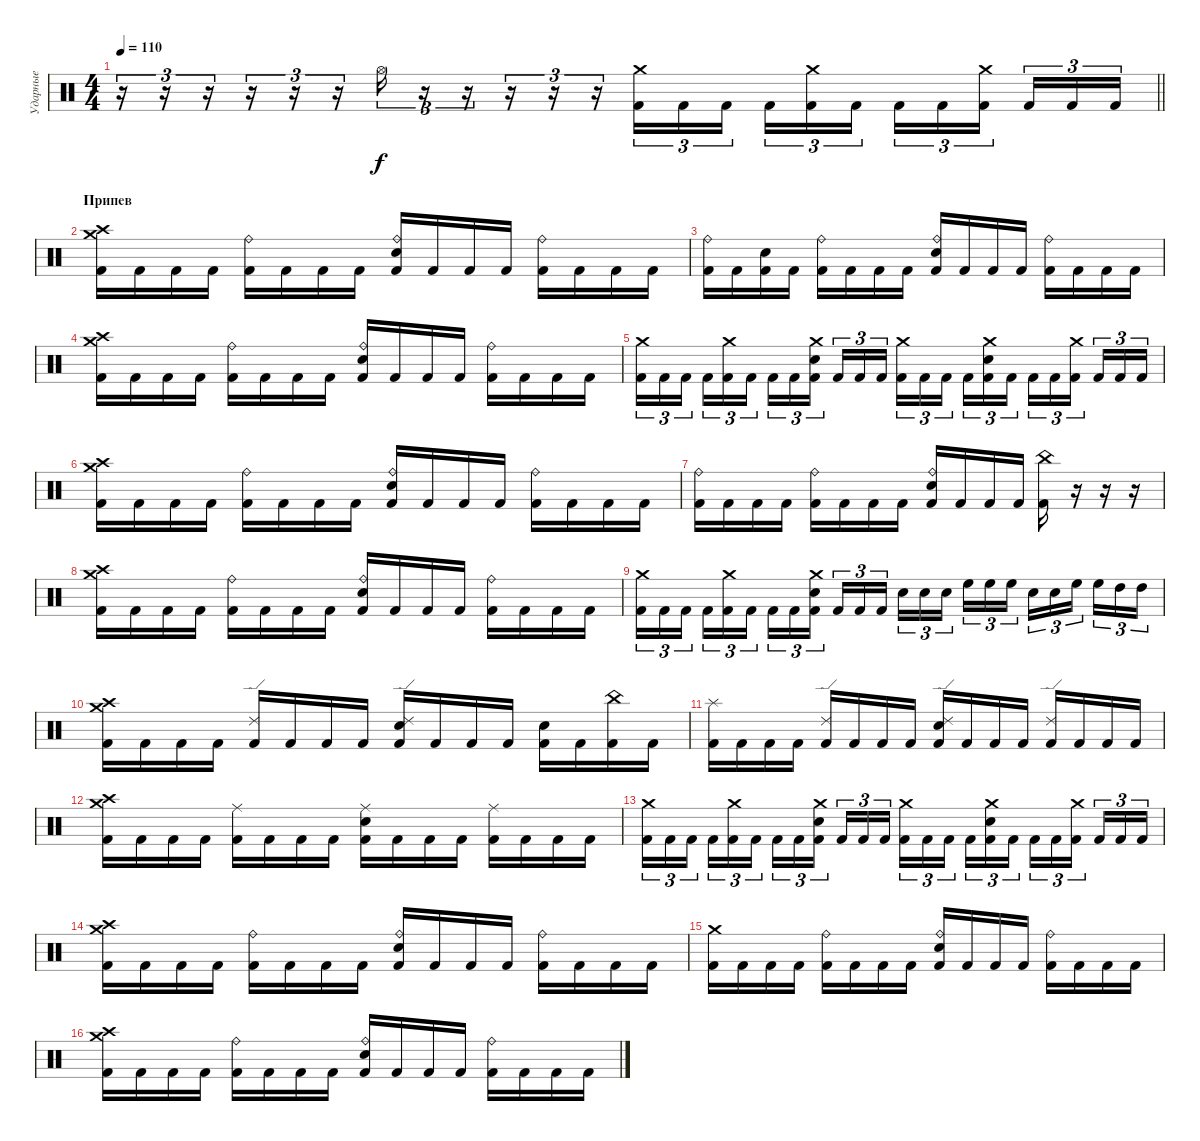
\track ("Ударные" "Ударные") {instrument percussion}
\staff {score}
\articulation defaults
\ts (4 4)
\tempo 110
\clef neutral
\barLineRight lightlight
\ks c
r.16{tu (3 2) dy f} r.16{tu (3 2)} r.16{tu (3 2)} r.16{tu (3 2)} r.16{tu (3 2)} r.16{tu (3 2)} "Hi-Hat (open)".16{tu (3 2)} r.16{tu (3 2)} r.16{tu (3 2)} r.16{tu (3 2)} r.16{tu (3 2)} r.16{tu (3 2)} ("Crash medium (hit)" "Kick (hit) 2").16{tu (3 2)} "Kick (hit) 2".16{tu (3 2)} "Kick (hit) 2".16{tu (3 2) beam splitsecondary} "Kick (hit) 2".16{tu (3 2)} ("Crash medium (hit)" "Kick (hit) 2").16{tu (3 2)} "Kick (hit) 2".16{tu (3 2)} "Kick (hit) 2".16{tu (3 2)} "Kick (hit) 2".16{tu (3 2)} ("Crash medium (hit)" "Kick (hit) 2").16{tu (3 2) beam splitsecondary} "Kick (hit) 2".16{tu (3 2)} "Kick (hit) 2".16{tu (3 2)} "Kick (hit) 2".16{tu (3 2)} |
\section ("" "Припев")
("Crash high (hit)" "Crash medium (hit)" "Kick (hit) 2").16 "Kick (hit) 2".16 "Kick (hit) 2".16 "Kick (hit) 2".16 ("Ride (bell)" "Kick (hit) 2").16 "Kick (hit) 2".16 "Kick (hit) 2".16 "Kick (hit) 2".16 ("Ride (bell)" "Electric Snare (hit)" "Kick (hit) 2").16 "Kick (hit) 2".16 "Kick (hit) 2".16 "Kick (hit) 2".16 ("Ride (bell)" "Kick (hit) 2").16 "Kick (hit) 2".16 "Kick (hit) 2".16 "Kick (hit) 2".16 |
("Ride (bell)" "Kick (hit) 2").16 "Kick (hit) 2".16 ("Electric Snare (hit)" "Kick (hit) 2").16 "Kick (hit) 2".16 ("Ride (bell)" "Kick (hit) 2").16 "Kick (hit) 2".16 "Kick (hit) 2".16 "Kick (hit) 2".16 ("Ride (bell)" "Electric Snare (hit)" "Kick (hit) 2").16 "Kick (hit) 2".16 "Kick (hit) 2".16 "Kick (hit) 2".16 ("Ride (bell)" "Kick (hit) 2").16 "Kick (hit) 2".16 "Kick (hit) 2".16 "Kick (hit) 2".16 |
("Crash high (hit)" "Crash medium (hit)" "Kick (hit) 2").16 "Kick (hit) 2".16 "Kick (hit) 2".16 "Kick (hit) 2".16 ("Ride (bell)" "Kick (hit) 2").16 "Kick (hit) 2".16 "Kick (hit) 2".16 "Kick (hit) 2".16 ("Ride (bell)" "Electric Snare (hit)" "Kick (hit) 2").16 "Kick (hit) 2".16 "Kick (hit) 2".16 "Kick (hit) 2".16 ("Ride (bell)" "Kick (hit) 2").16 "Kick (hit) 2".16 "Kick (hit) 2".16 "Kick (hit) 2".16 |
("Crash medium (hit)" "Kick (hit) 2").16{tu (3 2)} "Kick (hit) 2".16{tu (3 2)} "Kick (hit) 2".16{tu (3 2) beam splitsecondary} "Kick (hit) 2".16{tu (3 2)} ("Crash medium (hit)" "Kick (hit) 2").16{tu (3 2)} "Kick (hit) 2".16{tu (3 2)} "Kick (hit) 2".16{tu (3 2)} "Kick (hit) 2".16{tu (3 2)} ("Crash medium (hit)" "Electric Snare (hit)" "Kick (hit) 2").16{tu (3 2) beam splitsecondary} "Kick (hit) 2".16{tu (3 2)} "Kick (hit) 2".16{tu (3 2)} "Kick (hit) 2".16{tu (3 2)} ("Crash medium (hit)" "Kick (hit) 2").16{tu (3 2)} "Kick (hit) 2".16{tu (3 2)} "Kick (hit) 2".16{tu (3 2) beam splitsecondary} "Kick (hit) 2".16{tu (3 2)} ("Crash medium (hit)" "Electric Snare (hit)" "Kick (hit) 2").16{tu (3 2)} "Kick (hit) 2".16{tu (3 2)} "Kick (hit) 2".16{tu (3 2)} "Kick (hit) 2".16{tu (3 2)} ("Crash medium (hit)" "Kick (hit) 2").16{tu (3 2) beam splitsecondary} "Kick (hit) 2".16{tu (3 2)} "Kick (hit) 2".16{tu (3 2)} "Kick (hit) 2".16{tu (3 2)} |
("Crash high (hit)" "Crash medium (hit)" "Kick (hit) 2").16 "Kick (hit) 2".16 "Kick (hit) 2".16 "Kick (hit) 2".16 ("Ride (bell)" "Kick (hit) 2").16 "Kick (hit) 2".16 "Kick (hit) 2".16 "Kick (hit) 2".16 ("Ride (bell)" "Electric Snare (hit)" "Kick (hit) 2").16 "Kick (hit) 2".16 "Kick (hit) 2".16 "Kick (hit) 2".16 ("Ride (bell)" "Kick (hit) 2").16 "Kick (hit) 2".16 "Kick (hit) 2".16 "Kick (hit) 2".16 |
("Ride (bell)" "Kick (hit) 2").16 "Kick (hit) 2".16 "Kick (hit) 2".16 "Kick (hit) 2".16 ("Ride (bell)" "Kick (hit) 2").16 "Kick (hit) 2".16 "Kick (hit) 2".16 "Kick (hit) 2".16 ("Ride (bell)" "Electric Snare (hit)" "Kick (hit) 2").16 "Kick (hit) 2".16 "Kick (hit) 2".16 "Kick (hit) 2".16 ("China (hit)" "Kick (hit) 2").16 r.16 r.16 r.16 |
("Crash high (hit)" "Crash medium (hit)" "Kick (hit) 2").16 "Kick (hit) 2".16 "Kick (hit) 2".16 "Kick (hit) 2".16 ("Ride (bell)" "Kick (hit) 2").16 "Kick (hit) 2".16 "Kick (hit) 2".16 "Kick (hit) 2".16 ("Ride (bell)" "Electric Snare (hit)" "Kick (hit) 2").16 "Kick (hit) 2".16 "Kick (hit) 2".16 "Kick (hit) 2".16 ("Ride (bell)" "Kick (hit) 2").16 "Kick (hit) 2".16 "Kick (hit) 2".16 "Kick (hit) 2".16 |
("Crash medium (hit)" "Kick (hit) 2").16{tu (3 2)} "Kick (hit) 2".16{tu (3 2)} "Kick (hit) 2".16{tu (3 2) beam splitsecondary} "Kick (hit) 2".16{tu (3 2)} ("Crash medium (hit)" "Kick (hit) 2").16{tu (3 2)} "Kick (hit) 2".16{tu (3 2)} "Kick (hit) 2".16{tu (3 2)} "Kick (hit) 2".16{tu (3 2)} ("Crash medium (hit)" "Electric Snare (hit)" "Kick (hit) 2").16{tu (3 2) beam splitsecondary} "Kick (hit) 2".16{tu (3 2)} "Kick (hit) 2".16{tu (3 2)} "Kick (hit) 2".16{tu (3 2)} "Electric Snare (hit)".16{tu (3 2)} "Electric Snare (hit)".16{tu (3 2)} "Electric Snare (hit)".16{tu (3 2) beam splitsecondary} "High Floor Tom (hit)".16{tu (3 2)} "High Floor Tom (hit)".16{tu (3 2)} "High Floor Tom (hit)".16{tu (3 2)} "Electric Snare (hit)".16{tu (3 2)} "Electric Snare (hit)".16{tu (3 2)} "High Floor Tom (hit)".16{tu (3 2) beam splitsecondary} "High Floor Tom (hit)".16{tu (3 2)} "High Tom (hit)".16{tu (3 2)} "High Tom (hit)".16{tu (3 2)} |
("Crash high (hit)" "Crash medium (hit)" "Kick (hit) 2").16 "Kick (hit) 2".16 "Kick (hit) 2".16 "Kick (hit) 2".16 ("Ride (edge) 2" "Kick (hit) 2").16 "Kick (hit) 2".16 "Kick (hit) 2".16 "Kick (hit) 2".16 ("Ride (edge) 2" "Electric Snare (hit)" "Kick (hit) 2").16 "Kick (hit) 2".16 "Kick (hit) 2".16 "Kick (hit) 2".16 ("Electric Snare (hit)" "Kick (hit) 2").16 "Kick (hit) 2".16 ("China (hit)" "Kick (hit) 2").16 "Kick (hit) 2".16 |
("Splash (hit)" "Kick (hit) 2").16 "Kick (hit) 2".16 "Kick (hit) 2".16 "Kick (hit) 2".16 ("Ride (edge) 2" "Kick (hit) 2").16 "Kick (hit) 2".16 "Kick (hit) 2".16 "Kick (hit) 2".16 ("Ride (edge) 2" "Electric Snare (hit)" "Kick (hit) 2").16 "Kick (hit) 2".16 "Kick (hit) 2".16 "Kick (hit) 2".16 ("Ride (edge) 2" "Kick (hit) 2").16 "Kick (hit) 2".16 "Kick (hit) 2".16 "Kick (hit) 2".16 |
("Crash high (hit)" "Crash medium (hit)" "Kick (hit) 2").16 "Kick (hit) 2".16 "Kick (hit) 2".16 "Kick (hit) 2".16 ("Ride (middle)" "Kick (hit) 2").16 "Kick (hit) 2".16 "Kick (hit) 2".16 "Kick (hit) 2".16 ("Ride (middle)" "Electric Snare (hit)" "Kick (hit) 2").16 "Kick (hit) 2".16 "Kick (hit) 2".16 "Kick (hit) 2".16 ("Ride (middle)" "Kick (hit) 2").16 "Kick (hit) 2".16 "Kick (hit) 2".16 "Kick (hit) 2".16 |
("Crash medium (hit)" "Kick (hit) 2").16{tu (3 2)} "Kick (hit) 2".16{tu (3 2)} "Kick (hit) 2".16{tu (3 2) beam splitsecondary} "Kick (hit) 2".16{tu (3 2)} ("Crash medium (hit)" "Kick (hit) 2").16{tu (3 2)} "Kick (hit) 2".16{tu (3 2)} "Kick (hit) 2".16{tu (3 2)} "Kick (hit) 2".16{tu (3 2)} ("Crash medium (hit)" "Electric Snare (hit)" "Kick (hit) 2").16{tu (3 2) beam splitsecondary} "Kick (hit) 2".16{tu (3 2)} "Kick (hit) 2".16{tu (3 2)} "Kick (hit) 2".16{tu (3 2)} ("Crash medium (hit)" "Kick (hit) 2").16{tu (3 2)} "Kick (hit) 2".16{tu (3 2)} "Kick (hit) 2".16{tu (3 2) beam splitsecondary} "Kick (hit) 2".16{tu (3 2)} ("Crash medium (hit)" "Electric Snare (hit)" "Kick (hit) 2").16{tu (3 2)} "Kick (hit) 2".16{tu (3 2)} "Kick (hit) 2".16{tu (3 2)} "Kick (hit) 2".16{tu (3 2)} ("Crash medium (hit)" "Kick (hit) 2").16{tu (3 2) beam splitsecondary} "Kick (hit) 2".16{tu (3 2)} "Kick (hit) 2".16{tu (3 2)} "Kick (hit) 2".16{tu (3 2)} |
("Crash high (hit)" "Crash medium (hit)" "Kick (hit) 2").16 "Kick (hit) 2".16 "Kick (hit) 2".16 "Kick (hit) 2".16 ("Ride (bell)" "Kick (hit) 2").16 "Kick (hit) 2".16 "Kick (hit) 2".16 "Kick (hit) 2".16 ("Ride (bell)" "Electric Snare (hit)" "Kick (hit) 2").16 "Kick (hit) 2".16 "Kick (hit) 2".16 "Kick (hit) 2".16 ("Ride (bell)" "Kick (hit) 2").16 "Kick (hit) 2".16 "Kick (hit) 2".16 "Kick (hit) 2".16 |
("Crash medium (hit)" "Kick (hit) 2").16 "Kick (hit) 2".16 "Kick (hit) 2".16 "Kick (hit) 2".16 ("Ride (bell)" "Kick (hit) 2").16 "Kick (hit) 2".16 "Kick (hit) 2".16 "Kick (hit) 2".16 ("Ride (bell)" "Electric Snare (hit)" "Kick (hit) 2").16 "Kick (hit) 2".16 "Kick (hit) 2".16 "Kick (hit) 2".16 ("Ride (bell)" "Kick (hit) 2").16 "Kick (hit) 2".16 "Kick (hit) 2".16 "Kick (hit) 2".16 |
("Crash high (hit)" "Crash medium (hit)" "Kick (hit) 2").16 "Kick (hit) 2".16 "Kick (hit) 2".16 "Kick (hit) 2".16 ("Ride (bell)" "Kick (hit) 2").16 "Kick (hit) 2".16 "Kick (hit) 2".16 "Kick (hit) 2".16 ("Ride (bell)" "Electric Snare (hit)" "Kick (hit) 2").16 "Kick (hit) 2".16 "Kick (hit) 2".16 "Kick (hit) 2".16 ("Ride (bell)" "Kick (hit) 2").16 "Kick (hit) 2".16 "Kick (hit) 2".16 "Kick (hit) 2".16
